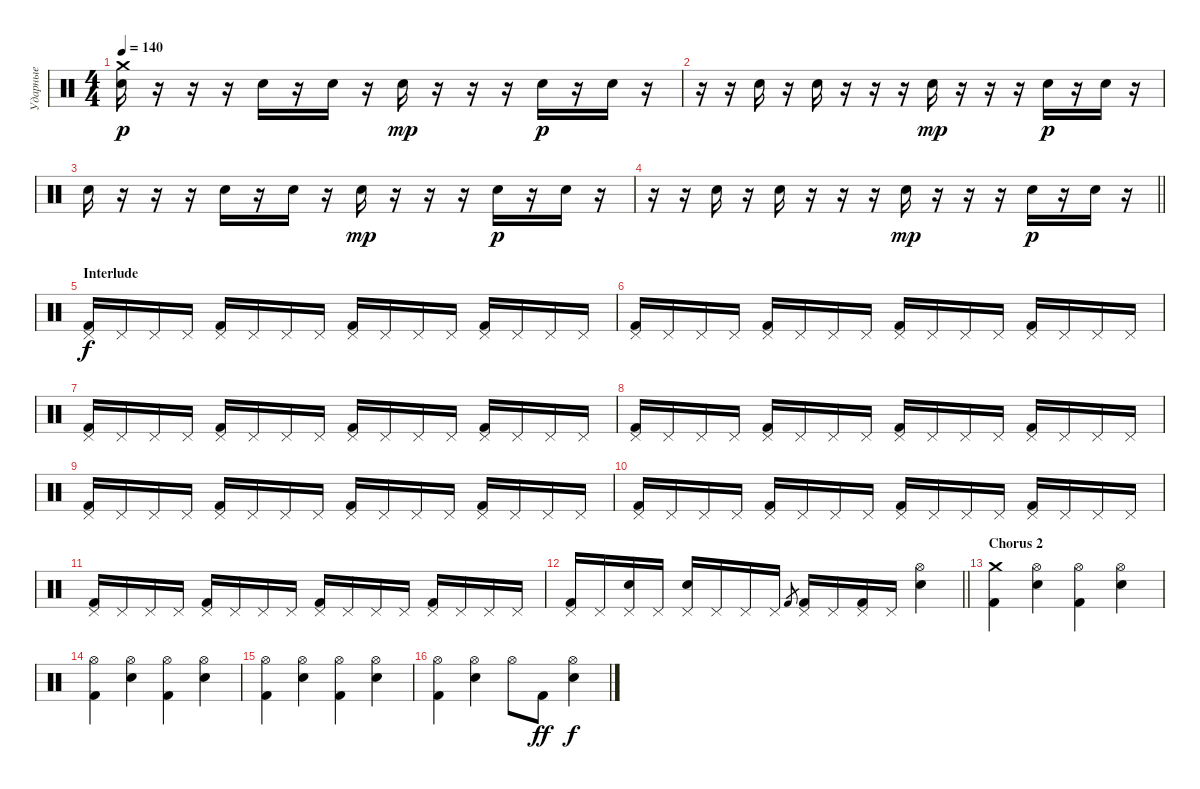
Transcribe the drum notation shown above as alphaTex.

\track ("Ударные" "Ударные") {instrument percussion}
\staff {score}
\articulation defaults
\ts (4 4)
\tempo 140
\clef neutral
\ks c
("Crash medium (hit)" "Electric Snare (hit)").16{dy p} r.16 r.16 r.16 "Electric Snare (hit)".16 r.16 "Electric Snare (hit)".16 r.16 "Electric Snare (hit)".16{dy mp} r.16 r.16 r.16 "Electric Snare (hit)".16{dy p} r.16 "Electric Snare (hit)".16 r.16 |
r.16 r.16 "Electric Snare (hit)".16 r.16 "Electric Snare (hit)".16 r.16 r.16 r.16 "Electric Snare (hit)".16{dy mp} r.16 r.16 r.16 "Electric Snare (hit)".16{dy p} r.16 "Electric Snare (hit)".16 r.16 |
"Electric Snare (hit)".16 r.16 r.16 r.16 "Electric Snare (hit)".16 r.16 "Electric Snare (hit)".16 r.16 "Electric Snare (hit)".16{dy mp} r.16 r.16 r.16 "Electric Snare (hit)".16{dy p} r.16 "Electric Snare (hit)".16 r.16 |
\barLineRight lightlight
r.16 r.16 "Electric Snare (hit)".16 r.16 "Electric Snare (hit)".16 r.16 r.16 r.16 "Electric Snare (hit)".16{dy mp} r.16 r.16 r.16 "Electric Snare (hit)".16{dy p} r.16 "Electric Snare (hit)".16 r.16 |
\section ("" "Interlude")
("Pedal Hi-Hat (hit)" "Kick (hit) 2").16{dy f} "Pedal Hi-Hat (hit)".16 "Pedal Hi-Hat (hit)".16 "Pedal Hi-Hat (hit)".16 ("Pedal Hi-Hat (hit)" "Kick (hit) 2").16 "Pedal Hi-Hat (hit)".16 "Pedal Hi-Hat (hit)".16 "Pedal Hi-Hat (hit)".16 ("Pedal Hi-Hat (hit)" "Kick (hit) 2").16 "Pedal Hi-Hat (hit)".16 "Pedal Hi-Hat (hit)".16 "Pedal Hi-Hat (hit)".16 ("Pedal Hi-Hat (hit)" "Kick (hit) 2").16 "Pedal Hi-Hat (hit)".16 "Pedal Hi-Hat (hit)".16 "Pedal Hi-Hat (hit)".16 |
("Pedal Hi-Hat (hit)" "Kick (hit) 2").16 "Pedal Hi-Hat (hit)".16 "Pedal Hi-Hat (hit)".16 "Pedal Hi-Hat (hit)".16 ("Pedal Hi-Hat (hit)" "Kick (hit) 2").16 "Pedal Hi-Hat (hit)".16 "Pedal Hi-Hat (hit)".16 "Pedal Hi-Hat (hit)".16 ("Pedal Hi-Hat (hit)" "Kick (hit) 2").16 "Pedal Hi-Hat (hit)".16 "Pedal Hi-Hat (hit)".16 "Pedal Hi-Hat (hit)".16 ("Pedal Hi-Hat (hit)" "Kick (hit) 2").16 "Pedal Hi-Hat (hit)".16 "Pedal Hi-Hat (hit)".16 "Pedal Hi-Hat (hit)".16 |
("Pedal Hi-Hat (hit)" "Kick (hit) 2").16 "Pedal Hi-Hat (hit)".16 "Pedal Hi-Hat (hit)".16 "Pedal Hi-Hat (hit)".16 ("Pedal Hi-Hat (hit)" "Kick (hit) 2").16 "Pedal Hi-Hat (hit)".16 "Pedal Hi-Hat (hit)".16 "Pedal Hi-Hat (hit)".16 ("Pedal Hi-Hat (hit)" "Kick (hit) 2").16 "Pedal Hi-Hat (hit)".16 "Pedal Hi-Hat (hit)".16 "Pedal Hi-Hat (hit)".16 ("Pedal Hi-Hat (hit)" "Kick (hit) 2").16 "Pedal Hi-Hat (hit)".16 "Pedal Hi-Hat (hit)".16 "Pedal Hi-Hat (hit)".16 |
("Pedal Hi-Hat (hit)" "Kick (hit) 2").16 "Pedal Hi-Hat (hit)".16 "Pedal Hi-Hat (hit)".16 "Pedal Hi-Hat (hit)".16 ("Pedal Hi-Hat (hit)" "Kick (hit) 2").16 "Pedal Hi-Hat (hit)".16 "Pedal Hi-Hat (hit)".16 "Pedal Hi-Hat (hit)".16 ("Pedal Hi-Hat (hit)" "Kick (hit) 2").16 "Pedal Hi-Hat (hit)".16 "Pedal Hi-Hat (hit)".16 "Pedal Hi-Hat (hit)".16 ("Pedal Hi-Hat (hit)" "Kick (hit) 2").16 "Pedal Hi-Hat (hit)".16 "Pedal Hi-Hat (hit)".16 "Pedal Hi-Hat (hit)".16 |
("Pedal Hi-Hat (hit)" "Kick (hit) 2").16 "Pedal Hi-Hat (hit)".16 "Pedal Hi-Hat (hit)".16 "Pedal Hi-Hat (hit)".16 ("Pedal Hi-Hat (hit)" "Kick (hit) 2").16 "Pedal Hi-Hat (hit)".16 "Pedal Hi-Hat (hit)".16 "Pedal Hi-Hat (hit)".16 ("Pedal Hi-Hat (hit)" "Kick (hit) 2").16 "Pedal Hi-Hat (hit)".16 "Pedal Hi-Hat (hit)".16 "Pedal Hi-Hat (hit)".16 ("Pedal Hi-Hat (hit)" "Kick (hit) 2").16 "Pedal Hi-Hat (hit)".16 "Pedal Hi-Hat (hit)".16 "Pedal Hi-Hat (hit)".16 |
("Pedal Hi-Hat (hit)" "Kick (hit) 2").16 "Pedal Hi-Hat (hit)".16 "Pedal Hi-Hat (hit)".16 "Pedal Hi-Hat (hit)".16 ("Pedal Hi-Hat (hit)" "Kick (hit) 2").16 "Pedal Hi-Hat (hit)".16 "Pedal Hi-Hat (hit)".16 "Pedal Hi-Hat (hit)".16 ("Pedal Hi-Hat (hit)" "Kick (hit) 2").16 "Pedal Hi-Hat (hit)".16 "Pedal Hi-Hat (hit)".16 "Pedal Hi-Hat (hit)".16 ("Pedal Hi-Hat (hit)" "Kick (hit) 2").16 "Pedal Hi-Hat (hit)".16 "Pedal Hi-Hat (hit)".16 "Pedal Hi-Hat (hit)".16 |
("Pedal Hi-Hat (hit)" "Kick (hit) 2").16 "Pedal Hi-Hat (hit)".16 "Pedal Hi-Hat (hit)".16 "Pedal Hi-Hat (hit)".16 ("Pedal Hi-Hat (hit)" "Kick (hit) 2").16 "Pedal Hi-Hat (hit)".16 "Pedal Hi-Hat (hit)".16 "Pedal Hi-Hat (hit)".16 ("Pedal Hi-Hat (hit)" "Kick (hit) 2").16 "Pedal Hi-Hat (hit)".16 "Pedal Hi-Hat (hit)".16 "Pedal Hi-Hat (hit)".16 ("Pedal Hi-Hat (hit)" "Kick (hit) 2").16 "Pedal Hi-Hat (hit)".16 "Pedal Hi-Hat (hit)".16 "Pedal Hi-Hat (hit)".16 |
\barLineRight lightlight
("Pedal Hi-Hat (hit)" "Kick (hit) 2").16 "Pedal Hi-Hat (hit)".16 ("Pedal Hi-Hat (hit)" "Electric Snare (hit)").16 "Pedal Hi-Hat (hit)".16 ("Pedal Hi-Hat (hit)" "Electric Snare (hit)").16 "Pedal Hi-Hat (hit)".16 "Pedal Hi-Hat (hit)".16 "Pedal Hi-Hat (hit)".16 "Kick (hit) 2".8{gr} ("Pedal Hi-Hat (hit)" "Kick (hit) 2").16 "Pedal Hi-Hat (hit)".16 ("Pedal Hi-Hat (hit)" "Kick (hit) 2").16 "Pedal Hi-Hat (hit)".16 ("Hi-Hat (open)" "Electric Snare (hit)").4 |
\section ("" "Chorus 2")
("Crash medium (hit)" "Kick (hit) 2").4 ("Hi-Hat (open)" "Electric Snare (hit)").4 ("Hi-Hat (open)" "Kick (hit) 2").4 ("Hi-Hat (open)" "Electric Snare (hit)").4 |
("Hi-Hat (open)" "Kick (hit) 2").4 ("Hi-Hat (open)" "Electric Snare (hit)").4 ("Hi-Hat (open)" "Kick (hit) 2").4 ("Hi-Hat (open)" "Electric Snare (hit)").4 |
("Hi-Hat (open)" "Kick (hit) 2").4 ("Hi-Hat (open)" "Electric Snare (hit)").4 ("Hi-Hat (open)" "Kick (hit) 2").4 ("Hi-Hat (open)" "Electric Snare (hit)").4 |
("Hi-Hat (open)" "Kick (hit) 2").4 ("Hi-Hat (open)" "Electric Snare (hit)").4 "Hi-Hat (open)".8 "Kick (hit) 2".8{dy ff} ("Hi-Hat (open)" "Electric Snare (hit)").4{dy f}
